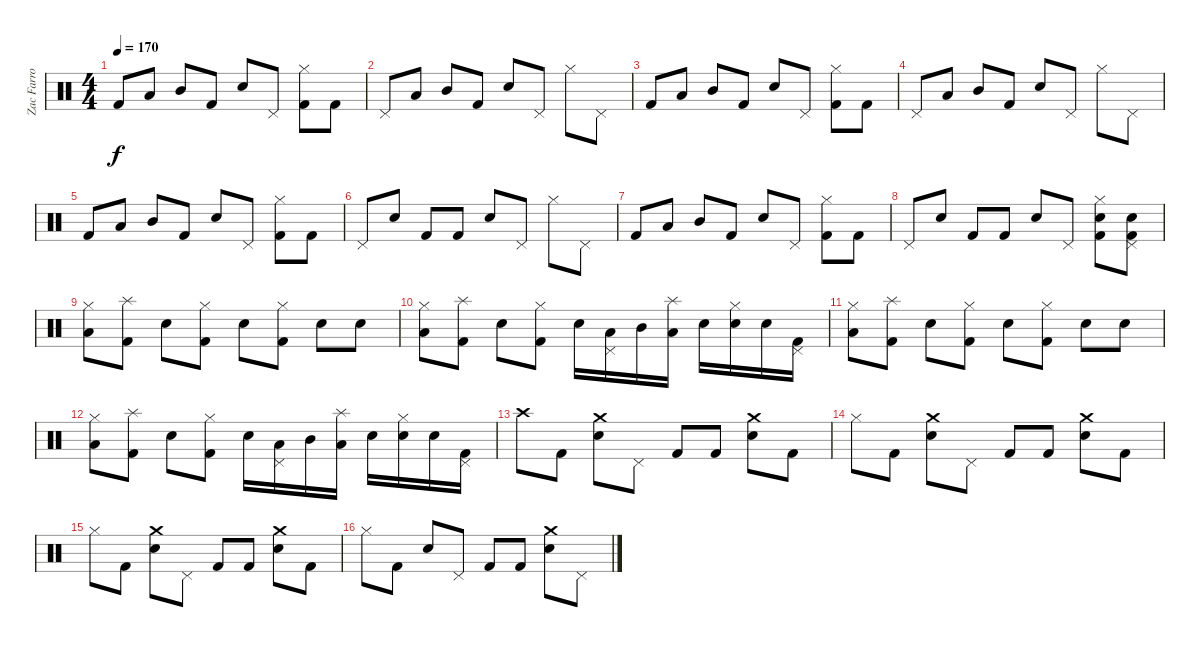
\track ("Zac Farro Drums" "Zac Farro ") {instrument percussion}
\staff {score}
\articulation defaults
\ts (4 4)
\tempo 170
\clef neutral
\ks c "Kick (hit) 2".8{dy f} "Low Tom (hit)".8 "Mid Tom (hit)".8 "Kick (hit) 2".8 "Electric Snare (hit)".8 "Pedal Hi-Hat (hit)".8
("Hi-Hat (closed)" "Kick (hit) 2").8 "Kick (hit) 2".8 |
"Pedal Hi-Hat (hit)".8 "Low Tom (hit)".8 "Mid Tom (hit)".8 "Kick (hit) 2".8 "Electric Snare (hit)".8 "Pedal Hi-Hat (hit)".8 "Hi-Hat (closed)".8 "Pedal Hi-Hat (hit)".8 |
"Kick (hit) 2".8 "Low Tom (hit)".8 "Mid Tom (hit)".8 "Kick (hit) 2".8 "Electric Snare (hit)".8 "Pedal Hi-Hat (hit)".8 ("Hi-Hat (closed)" "Kick (hit) 2").8 "Kick (hit) 2".8 |
"Pedal Hi-Hat (hit)".8 "Low Tom (hit)".8 "Mid Tom (hit)".8 "Kick (hit) 2".8 "Electric Snare (hit)".8 "Pedal Hi-Hat (hit)".8 "Hi-Hat (closed)".8 "Pedal Hi-Hat (hit)".8 |
"Kick (hit) 2".8 "Low Tom (hit)".8 "Mid Tom (hit)".8 "Kick (hit) 2".8 "Electric Snare (hit)".8 "Pedal Hi-Hat (hit)".8 ("Hi-Hat (closed)" "Kick (hit) 2").8 "Kick (hit) 2".8 |
"Pedal Hi-Hat (hit)".8 "Electric Snare (hit)".8 "Kick (hit) 2".8 "Kick (hit) 2".8 "Electric Snare (hit)".8 "Pedal Hi-Hat (hit)".8 "Hi-Hat (closed)".8 "Pedal Hi-Hat (hit)".8 |
"Kick (hit) 2".8 "Low Tom (hit)".8 "Mid Tom (hit)".8 "Kick (hit) 2".8 "Electric Snare (hit)".8 "Pedal Hi-Hat (hit)".8 ("Hi-Hat (closed)" "Kick (hit) 2").8 "Kick (hit) 2".8 |
"Pedal Hi-Hat (hit)".8 "Electric Snare (hit)".8 "Kick (hit) 2".8 "Kick (hit) 2".8 "Electric Snare (hit)".8 "Pedal Hi-Hat (hit)".8 ("Hi-Hat (closed)" "Electric Snare (hit)" "Kick (hit) 2").8 ("Pedal Hi-Hat (hit)" "Electric Snare (hit)" "Kick (hit) 2").8 |
("Hi-Hat (closed)" "Low Tom (hit)").8 ("Splash (hit)" "Kick (hit) 2").8 "Electric Snare (hit)".8 ("Hi-Hat (closed)" "Kick (hit) 2").8 "Electric Snare (hit)".8 ("Hi-Hat (closed)" "Kick (hit) 2").8 "Electric Snare (hit)".8 "Electric Snare (hit)".8 |
("Hi-Hat (closed)" "Low Tom (hit)").8 ("Splash (hit)" "Kick (hit) 2").8 "Electric Snare (hit)".8 ("Hi-Hat (closed)" "Kick (hit) 2").8 "Electric Snare (hit)".16 ("Pedal Hi-Hat (hit)" "Low Tom (hit)").16 "Mid Tom (hit)".16 ("Splash (hit)" "Low Floor Tom (hit)").16 "Electric Snare (hit)".16 ("Hi-Hat (closed)" "Electric Snare (hit)").16 "Electric Snare (hit)".16 ("Pedal Hi-Hat (hit)" "Kick (hit) 2").16 |
("Hi-Hat (closed)" "Low Tom (hit)").8 ("Splash (hit)" "Kick (hit) 2").8 "Electric Snare (hit)".8 ("Hi-Hat (closed)" "Kick (hit) 2").8 "Electric Snare (hit)".8 ("Hi-Hat (closed)" "Kick (hit) 2").8 "Electric Snare (hit)".8 "Electric Snare (hit)".8 |
("Hi-Hat (closed)" "Low Tom (hit)").8 ("Splash (hit)" "Kick (hit) 2").8 "Electric Snare (hit)".8 ("Hi-Hat (closed)" "Kick (hit) 2").8 "Electric Snare (hit)".16 ("Pedal Hi-Hat (hit)" "Low Tom (hit)").16 "Mid Tom (hit)".16 ("Splash (hit)" "Low Floor Tom (hit)").16 "Electric Snare (hit)".16 ("Hi-Hat (closed)" "Electric Snare (hit)").16 "Electric Snare (hit)".16 ("Pedal Hi-Hat (hit)" "Kick (hit) 2").16 |
"Crash high (hit)".8 "Kick (hit) 2".8 ("Crash medium (hit)" "Electric Snare (hit)").8 "Pedal Hi-Hat (hit)".8 "Kick (hit) 2".8 "Kick (hit) 2".8 ("Crash medium (hit)" "Electric Snare (hit)").8 "Kick (hit) 2".8 |
"Hi-Hat (closed)".8 "Kick (hit) 2".8 ("Crash medium (hit)" "Electric Snare (hit)").8 "Pedal Hi-Hat (hit)".8 "Kick (hit) 2".8 "Kick (hit) 2".8 ("Crash medium (hit)" "Electric Snare (hit)").8 "Kick (hit) 2".8 |
"Hi-Hat (closed)".8 "Kick (hit) 2".8 ("Crash medium (hit)" "Electric Snare (hit)").8 "Pedal Hi-Hat (hit)".8 "Kick (hit) 2".8 "Kick (hit) 2".8 ("Crash medium (hit)" "Electric Snare (hit)").8 "Kick (hit) 2".8 |
"Hi-Hat (closed)".8 "Kick (hit) 2".8 "Electric Snare (hit)".8 "Pedal Hi-Hat (hit)".8 "Kick (hit) 2".8 "Kick (hit) 2".8 ("Crash medium (hit)" "Electric Snare (hit)").8 "Pedal Hi-Hat (hit)".8
